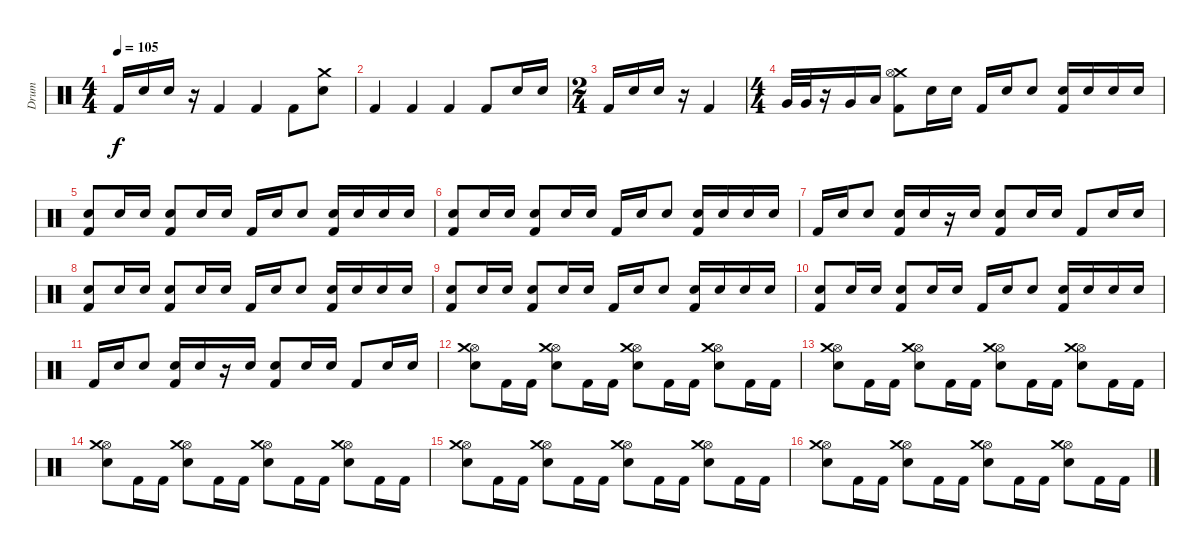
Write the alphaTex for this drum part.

\track ("Drum" "Drum") {instrument percussion}
\staff {score}
\articulation defaults
\ts (4 4)
\tempo 105
\clef neutral
\ks c "Kick (hit) 2".16{dy f} "Electric Snare (hit)".16 "Electric Snare (hit)".16
r.16 "Kick (hit) 2".4 "Kick (hit) 2".4 "Kick (hit) 2".8 ("Crash medium (hit)" "Electric Snare (hit)").8 |
"Kick (hit) 2".4 "Kick (hit) 2".4 "Kick (hit) 2".4 "Kick (hit) 2".8 "Electric Snare (hit)".16 "Electric Snare (hit)".16 |
\ts (2 4)
"Kick (hit) 2".16 "Electric Snare (hit)".16 "Electric Snare (hit)".16 r.16 "Kick (hit) 2".4 |
\ts (4 4)
"Very Low Tom (hit)".32 "Very Low Tom (hit)".32 r.16 "Very Low Tom (hit)".16 "Low Floor Tom (hit)".16 ("Kick (hit) 2" "Crash medium (hit)" "Hi-Hat (open)").8 "Electric Snare (hit)".16 "Electric Snare (hit)".16 "Kick (hit) 2".16 "Electric Snare (hit)".16 "Electric Snare (hit)".8 ("Kick (hit) 2" "Electric Snare (hit)").16 "Electric Snare (hit)".16 "Electric Snare (hit)".16 "Electric Snare (hit)".16 |
("Electric Snare (hit)" "Kick (hit) 2").8 "Electric Snare (hit)".16 "Electric Snare (hit)".16 ("Electric Snare (hit)" "Kick (hit) 2").8 "Electric Snare (hit)".16 "Electric Snare (hit)".16 "Kick (hit) 2".16 "Electric Snare (hit)".16 "Electric Snare (hit)".8 ("Electric Snare (hit)" "Kick (hit) 2").16 "Electric Snare (hit)".16 "Electric Snare (hit)".16 "Electric Snare (hit)".16 |
("Electric Snare (hit)" "Kick (hit) 2").8 "Electric Snare (hit)".16 "Electric Snare (hit)".16 ("Electric Snare (hit)" "Kick (hit) 2").8 "Electric Snare (hit)".16 "Electric Snare (hit)".16 "Kick (hit) 2".16 "Electric Snare (hit)".16 "Electric Snare (hit)".8 ("Electric Snare (hit)" "Kick (hit) 2").16 "Electric Snare (hit)".16 "Electric Snare (hit)".16 "Electric Snare (hit)".16 |
"Kick (hit) 2".16 "Electric Snare (hit)".16 "Electric Snare (hit)".8 ("Electric Snare (hit)" "Kick (hit) 2").16 "Electric Snare (hit)".16 r.16 "Electric Snare (hit)".16 ("Electric Snare (hit)" "Kick (hit) 2").8 "Electric Snare (hit)".16 "Electric Snare (hit)".16 "Kick (hit) 2".8 "Electric Snare (hit)".16 "Electric Snare (hit)".16 |
("Electric Snare (hit)" "Kick (hit) 2").8 "Electric Snare (hit)".16 "Electric Snare (hit)".16 ("Electric Snare (hit)" "Kick (hit) 2").8 "Electric Snare (hit)".16 "Electric Snare (hit)".16 "Kick (hit) 2".16 "Electric Snare (hit)".16 "Electric Snare (hit)".8 ("Electric Snare (hit)" "Kick (hit) 2").16 "Electric Snare (hit)".16 "Electric Snare (hit)".16 "Electric Snare (hit)".16 |
("Electric Snare (hit)" "Kick (hit) 2").8 "Electric Snare (hit)".16 "Electric Snare (hit)".16 ("Electric Snare (hit)" "Kick (hit) 2").8 "Electric Snare (hit)".16 "Electric Snare (hit)".16 "Kick (hit) 2".16 "Electric Snare (hit)".16 "Electric Snare (hit)".8 ("Electric Snare (hit)" "Kick (hit) 2").16 "Electric Snare (hit)".16 "Electric Snare (hit)".16 "Electric Snare (hit)".16 |
("Electric Snare (hit)" "Kick (hit) 2").8 "Electric Snare (hit)".16 "Electric Snare (hit)".16 ("Electric Snare (hit)" "Kick (hit) 2").8 "Electric Snare (hit)".16 "Electric Snare (hit)".16 "Kick (hit) 2".16 "Electric Snare (hit)".16 "Electric Snare (hit)".8 ("Electric Snare (hit)" "Kick (hit) 2").16 "Electric Snare (hit)".16 "Electric Snare (hit)".16 "Electric Snare (hit)".16 |
"Kick (hit) 2".16 "Electric Snare (hit)".16 "Electric Snare (hit)".8 ("Electric Snare (hit)" "Kick (hit) 2").16 "Electric Snare (hit)".16 r.16 "Electric Snare (hit)".16 ("Electric Snare (hit)" "Kick (hit) 2").8 "Electric Snare (hit)".16 "Electric Snare (hit)".16 "Kick (hit) 2".8 "Electric Snare (hit)".16 "Electric Snare (hit)".16 |
("Hi-Hat (open)" "Crash medium (hit)" "Electric Snare (hit)").8 "Kick (hit) 2".16 "Kick (hit) 2".16 ("Hi-Hat (open)" "Crash medium (hit)" "Electric Snare (hit)").8 "Kick (hit) 2".16 "Kick (hit) 2".16 ("Hi-Hat (open)" "Crash medium (hit)" "Electric Snare (hit)").8 "Kick (hit) 2".16 "Kick (hit) 2".16 ("Hi-Hat (open)" "Crash medium (hit)" "Electric Snare (hit)").8 "Kick (hit) 2".16 "Kick (hit) 2".16 |
("Hi-Hat (open)" "Crash medium (hit)" "Electric Snare (hit)").8 "Kick (hit) 2".16 "Kick (hit) 2".16 ("Hi-Hat (open)" "Crash medium (hit)" "Electric Snare (hit)").8 "Kick (hit) 2".16 "Kick (hit) 2".16 ("Hi-Hat (open)" "Crash medium (hit)" "Electric Snare (hit)").8 "Kick (hit) 2".16 "Kick (hit) 2".16 ("Hi-Hat (open)" "Crash medium (hit)" "Electric Snare (hit)").8 "Kick (hit) 2".16 "Kick (hit) 2".16 |
("Hi-Hat (open)" "Crash medium (hit)" "Electric Snare (hit)").8 "Kick (hit) 2".16 "Kick (hit) 2".16 ("Hi-Hat (open)" "Crash medium (hit)" "Electric Snare (hit)").8 "Kick (hit) 2".16 "Kick (hit) 2".16 ("Hi-Hat (open)" "Crash medium (hit)" "Electric Snare (hit)").8 "Kick (hit) 2".16 "Kick (hit) 2".16 ("Hi-Hat (open)" "Crash medium (hit)" "Electric Snare (hit)").8 "Kick (hit) 2".16 "Kick (hit) 2".16 |
("Hi-Hat (open)" "Crash medium (hit)" "Electric Snare (hit)").8 "Kick (hit) 2".16 "Kick (hit) 2".16 ("Hi-Hat (open)" "Crash medium (hit)" "Electric Snare (hit)").8 "Kick (hit) 2".16 "Kick (hit) 2".16 ("Hi-Hat (open)" "Crash medium (hit)" "Electric Snare (hit)").8 "Kick (hit) 2".16 "Kick (hit) 2".16 ("Hi-Hat (open)" "Crash medium (hit)" "Electric Snare (hit)").8 "Kick (hit) 2".16 "Kick (hit) 2".16 |
("Hi-Hat (open)" "Crash medium (hit)" "Electric Snare (hit)").8 "Kick (hit) 2".16 "Kick (hit) 2".16 ("Hi-Hat (open)" "Crash medium (hit)" "Electric Snare (hit)").8 "Kick (hit) 2".16 "Kick (hit) 2".16 ("Hi-Hat (open)" "Crash medium (hit)" "Electric Snare (hit)").8 "Kick (hit) 2".16 "Kick (hit) 2".16 ("Hi-Hat (open)" "Crash medium (hit)" "Electric Snare (hit)").8 "Kick (hit) 2".16 "Kick (hit) 2".16
